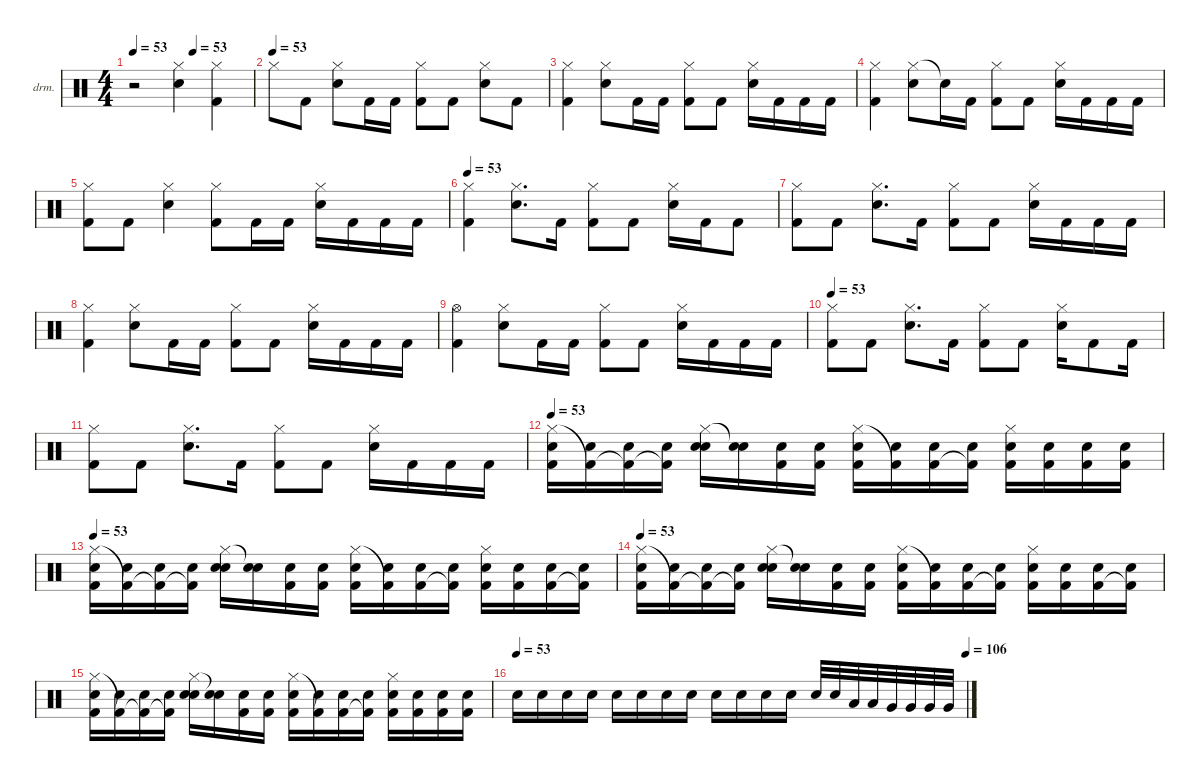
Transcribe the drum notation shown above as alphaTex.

\defaultSystemsLayout 4
\hideDynamics
\bracketExtendMode nobrackets
\firstSystemTrackNameOrientation horizontal
\otherSystemsTrackNameOrientation horizontal
\track ("Lars Ulrich" "drm.") {instrument percussion}
\staff {score}
\articulation defaults
\ts (4 4)
\tempo 53
\tempo (53 0.5)
\clef neutral
\ks c
r.2{dy p} ("Hi-Hat (closed)" "Snare (hit) 2").4 ("Hi-Hat (closed)" "Kick (hit) 2").4 |
\tempo (53)
"Hi-Hat (closed)".8 "Kick (hit) 2".8{dy f} ("Hi-Hat (closed)" "Snare (hit) 2").8{dy p} "Kick (hit) 2".16{dy f} "Kick (hit) 2".16 ("Hi-Hat (closed)" "Kick (hit) 2").8{dy p} "Kick (hit) 2".8{dy f} ("Hi-Hat (closed)" "Snare (hit) 2").8{dy p} "Kick (hit) 2".8{dy f} |
("Hi-Hat (closed)" "Kick (hit) 2").4{dy p} ("Hi-Hat (closed)" "Snare (hit) 2").8 "Kick (hit) 2".16{dy f} "Kick (hit) 2".16 ("Hi-Hat (closed)" "Kick (hit) 2").8{dy p} "Kick (hit) 2".8{dy f} ("Hi-Hat (closed)" "Snare (hit) 2").16{dy p} "Kick (hit) 2".16{dy f} "Kick (hit) 2".16 "Kick (hit) 2".16 |
("Hi-Hat (closed)" "Kick (hit) 2").4{dy p} ("Hi-Hat (closed)" "Snare (hit) 2").8 "Snare (hit) 2"{t}.16{dy f} "Kick (hit) 2".16 ("Hi-Hat (closed)" "Kick (hit) 2").8{dy p} "Kick (hit) 2".8{dy f} ("Hi-Hat (closed)" "Snare (hit) 2").16{dy p} "Kick (hit) 2".16{dy f} "Kick (hit) 2".16 "Kick (hit) 2".16 |
("Hi-Hat (closed)" "Kick (hit) 2").8{dy p} "Kick (hit) 2".8{dy f} ("Hi-Hat (closed)" "Snare (hit) 2").4{dy p} ("Hi-Hat (closed)" "Kick (hit) 2").8 "Kick (hit) 2".16{dy f} "Kick (hit) 2".16 ("Hi-Hat (closed)" "Snare (hit) 2").16{dy p} "Kick (hit) 2".16{dy f} "Kick (hit) 2".16 "Kick (hit) 2".16 |
\tempo 53
("Hi-Hat (closed)" "Kick (hit) 2").4{dy p} ("Hi-Hat (closed)" "Snare (hit) 2").8{d} "Kick (hit) 2".16{dy f} ("Hi-Hat (closed)" "Kick (hit) 2").8{dy p} "Kick (hit) 2".8{dy f} ("Hi-Hat (closed)" "Snare (hit) 2").16{dy p} "Kick (hit) 2".16{dy f} "Kick (hit) 2".8 |
("Hi-Hat (closed)" "Kick (hit) 2").8{dy p} "Kick (hit) 2".8{dy f} ("Hi-Hat (closed)" "Snare (hit) 2").8{d dy p} "Kick (hit) 2".16{dy f} ("Hi-Hat (closed)" "Kick (hit) 2").8{dy p} "Kick (hit) 2".8{dy f} ("Hi-Hat (closed)" "Snare (hit) 2").16{dy p} "Kick (hit) 2".16{dy f} "Kick (hit) 2".16 "Kick (hit) 2".16 |
("Hi-Hat (closed)" "Kick (hit) 2").4{dy p} ("Hi-Hat (closed)" "Snare (hit) 2").8 "Kick (hit) 2".16{dy f} "Kick (hit) 2".16 ("Hi-Hat (closed)" "Kick (hit) 2").8{dy p} "Kick (hit) 2".8{dy f} ("Hi-Hat (closed)" "Snare (hit) 2").16{dy p} "Kick (hit) 2".16{dy f} "Kick (hit) 2".16 "Kick (hit) 2".16 |
("Hi-Hat (open)" "Kick (hit) 2").4 ("Hi-Hat (closed)" "Snare (hit) 2").8{dy p} "Kick (hit) 2".16{dy f} "Kick (hit) 2".16 ("Hi-Hat (closed)" "Kick (hit) 2").8{dy p} "Kick (hit) 2".8{dy f} ("Hi-Hat (closed)" "Snare (hit) 2").16{dy p} "Kick (hit) 2".16{dy f} "Kick (hit) 2".16 "Kick (hit) 2".16 |
\tempo 53
("Hi-Hat (closed)" "Kick (hit) 2").8{dy p} "Kick (hit) 2".8{dy f} ("Hi-Hat (closed)" "Snare (hit) 2").8{d dy p} "Kick (hit) 2".16{dy f} ("Hi-Hat (closed)" "Kick (hit) 2").8{dy p} "Kick (hit) 2".8{dy f} ("Hi-Hat (closed)" "Snare (hit) 2").16{dy p} "Kick (hit) 2".8{dy f} "Kick (hit) 2".16 |
("Hi-Hat (closed)" "Kick (hit) 2").8{dy p} "Kick (hit) 2".8{dy f} ("Hi-Hat (closed)" "Snare (hit) 2").8{d dy p} "Kick (hit) 2".16{dy f} ("Hi-Hat (closed)" "Kick (hit) 2").8{dy p} "Kick (hit) 2".8{dy f} ("Hi-Hat (closed)" "Snare (hit) 2").16{dy p} "Kick (hit) 2".16{dy f} "Kick (hit) 2".16 "Kick (hit) 2".16 |
\tempo 53
("Hi-Hat (closed)" "Kick (hit) 2" "Snare (hit) 2").16 ("Kick (hit) 2"{t} "Snare (hit) 2").16 ("Kick (hit) 2"{t} "Snare (hit) 2").16 ("Kick (hit) 2"{t} "Snare (hit) 2").16 ("Hi-Hat (closed)" "Snare (hit) 2" "Snare (hit) 2").16 ("Snare (hit) 2"{t} "Snare (hit) 2").16 ("Kick (hit) 2" "Snare (hit) 2").16 ("Kick (hit) 2" "Snare (hit) 2").16 ("Hi-Hat (closed)" "Kick (hit) 2" "Snare (hit) 2").16 ("Kick (hit) 2"{t} "Snare (hit) 2").16 ("Kick (hit) 2" "Snare (hit) 2").16 ("Kick (hit) 2"{t} "Snare (hit) 2").16 ("Hi-Hat (closed)" "Kick (hit) 2" "Snare (hit) 2").16 ("Kick (hit) 2" "Snare (hit) 2").16 ("Kick (hit) 2" "Snare (hit) 2").16 ("Kick (hit) 2" "Snare (hit) 2").16 |
\tempo 53
("Hi-Hat (closed)" "Kick (hit) 2" "Snare (hit) 2").16 ("Kick (hit) 2"{t} "Snare (hit) 2").16 ("Kick (hit) 2"{t} "Snare (hit) 2").16 ("Kick (hit) 2"{t} "Snare (hit) 2").16 ("Hi-Hat (closed)" "Snare (hit) 2" "Snare (hit) 2").16 ("Snare (hit) 2"{t} "Snare (hit) 2").16 ("Kick (hit) 2" "Snare (hit) 2").16 ("Kick (hit) 2" "Snare (hit) 2").16 ("Hi-Hat (closed)" "Kick (hit) 2" "Snare (hit) 2").16 ("Kick (hit) 2"{t} "Snare (hit) 2").16 ("Kick (hit) 2" "Snare (hit) 2").16 ("Kick (hit) 2"{t} "Snare (hit) 2").16 ("Hi-Hat (closed)" "Kick (hit) 2" "Snare (hit) 2").16 ("Kick (hit) 2" "Snare (hit) 2").16 ("Kick (hit) 2" "Snare (hit) 2").16 ("Kick (hit) 2"{t} "Snare (hit) 2").16 |
\tempo 53
("Hi-Hat (closed)" "Kick (hit) 2" "Snare (hit) 2").16 ("Kick (hit) 2"{t} "Snare (hit) 2").16 ("Kick (hit) 2"{t} "Snare (hit) 2").16 ("Kick (hit) 2"{t} "Snare (hit) 2").16 ("Hi-Hat (closed)" "Snare (hit) 2" "Snare (hit) 2").16 ("Snare (hit) 2"{t} "Snare (hit) 2").16 ("Kick (hit) 2" "Snare (hit) 2").16 ("Kick (hit) 2" "Snare (hit) 2").16 ("Hi-Hat (closed)" "Kick (hit) 2" "Snare (hit) 2").16 ("Kick (hit) 2"{t} "Snare (hit) 2").16 ("Kick (hit) 2" "Snare (hit) 2").16{dy mp} ("Kick (hit) 2"{t} "Snare (hit) 2").16{dy f} ("Hi-Hat (closed)" "Kick (hit) 2" "Snare (hit) 2").16{dy p} ("Kick (hit) 2" "Snare (hit) 2").16 ("Kick (hit) 2" "Snare (hit) 2").16{dy pp} ("Kick (hit) 2"{t} "Snare (hit) 2").16{dy f} |
("Hi-Hat (closed)" "Kick (hit) 2" "Snare (hit) 2").16{dy pp} ("Kick (hit) 2"{t} "Snare (hit) 2").16{dy f} ("Kick (hit) 2"{t} "Snare (hit) 2").16 ("Kick (hit) 2"{t} "Snare (hit) 2").16 ("Hi-Hat (closed)" "Snare (hit) 2" "Snare (hit) 2").16{dy pp} ("Snare (hit) 2"{t} "Snare (hit) 2").16{dy f} ("Kick (hit) 2" "Snare (hit) 2").16{dy pp} ("Kick (hit) 2" "Snare (hit) 2").16 ("Hi-Hat (closed)" "Kick (hit) 2" "Snare (hit) 2").16 ("Kick (hit) 2"{t} "Snare (hit) 2").16{dy f} ("Kick (hit) 2" "Snare (hit) 2").16{dy pp} ("Kick (hit) 2"{t} "Snare (hit) 2").16{dy f} ("Hi-Hat (closed)" "Kick (hit) 2" "Snare (hit) 2").16{dy pp} ("Kick (hit) 2" "Snare (hit) 2").16 ("Kick (hit) 2" "Snare (hit) 2").16 ("Kick (hit) 2" "Snare (hit) 2").16 |
\tempo 53
\tempo (106 1)
"Snare (hit) 2".16{dy f} "Snare (hit) 2".16 "Snare (hit) 2".16 "Snare (hit) 2".16 "Snare (hit) 2".16 "Snare (hit) 2".16 "Snare (hit) 2".16 "Snare (hit) 2".16 "Snare (hit) 2".16 "Snare (hit) 2".16 "Snare (hit) 2".16 "Snare (hit) 2".16 "Snare (hit) 2".32 "Snare (hit) 2".32 "Low Tom (hit)".32 "Low Tom (hit)".32 "Very Low Tom (hit)".32 "Very Low Tom (hit)".32 "Very Low Tom (hit)".32 "Very Low Tom (hit)".32
